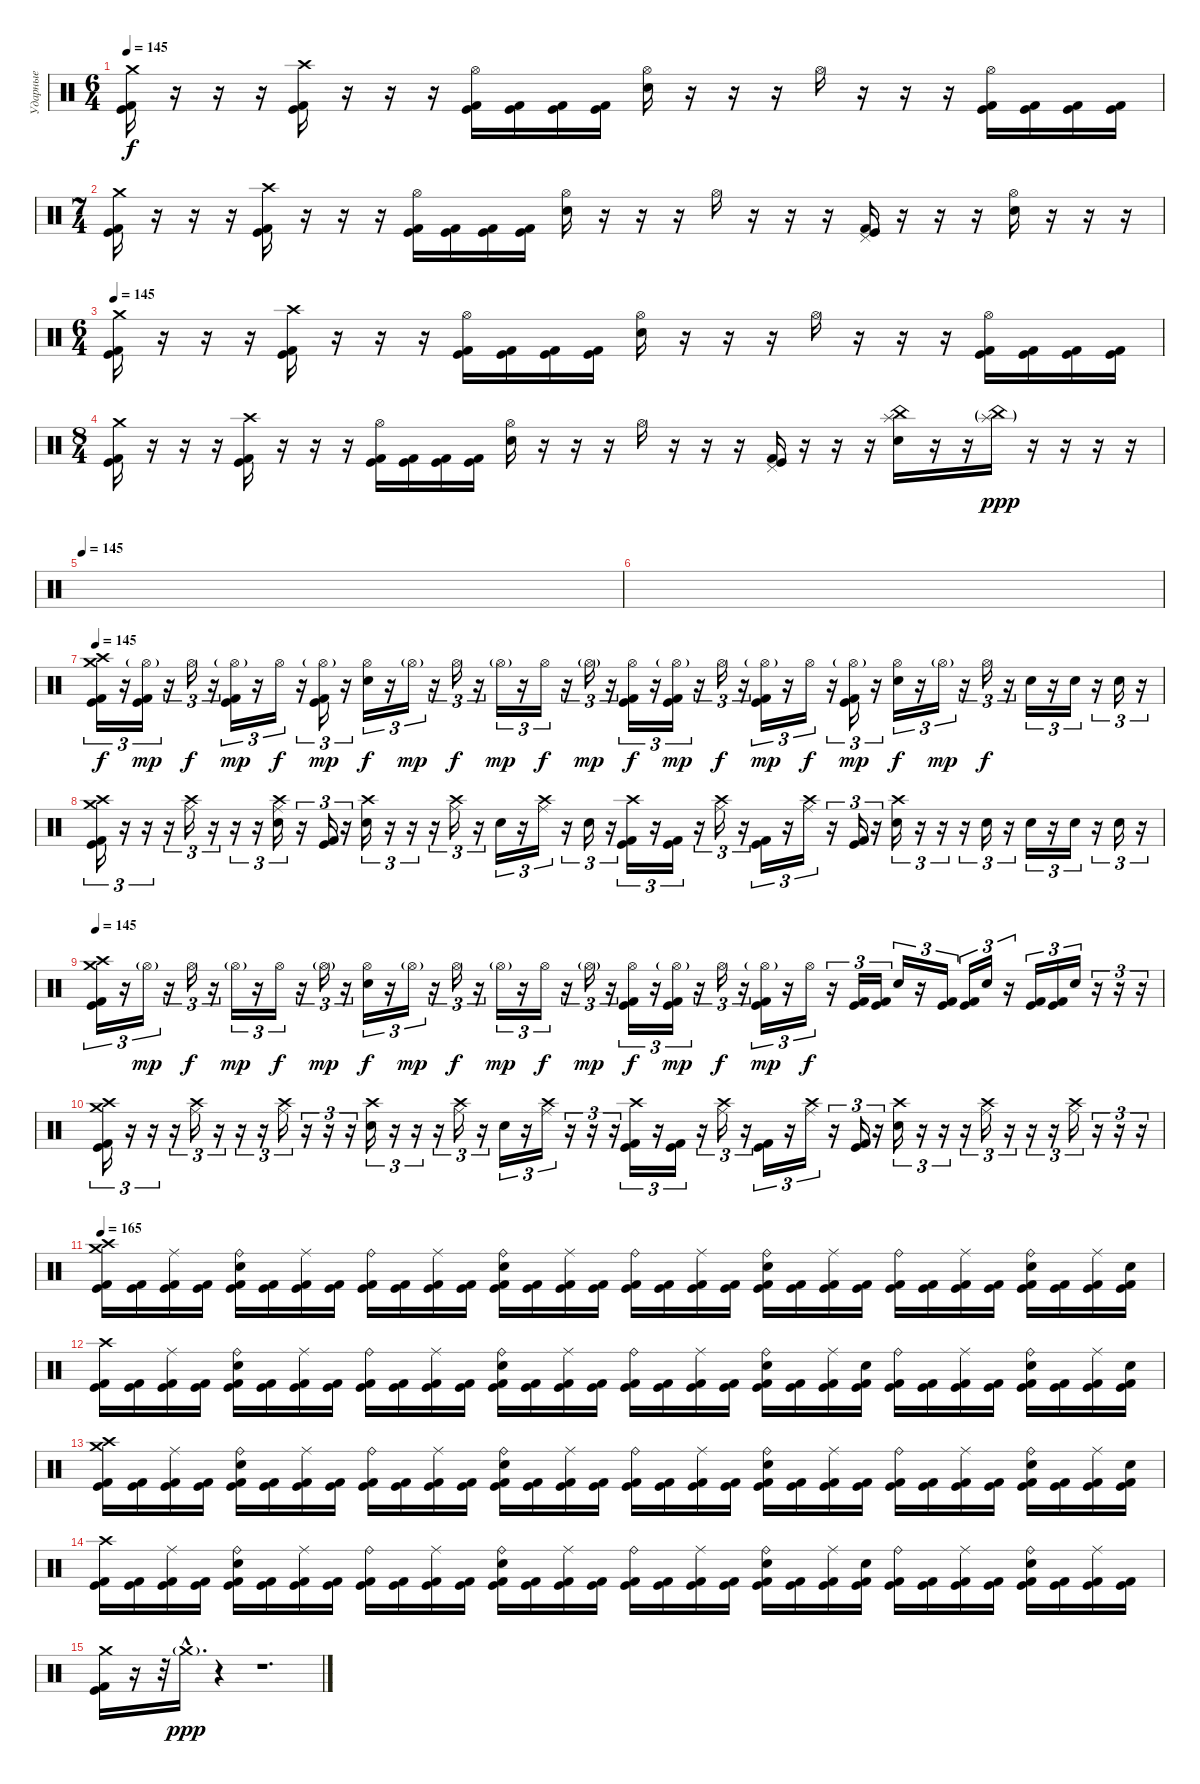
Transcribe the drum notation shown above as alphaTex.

\track ("Ударные" "Ударные") {instrument percussion}
\staff {score}
\articulation defaults
\ts (6 4)
\section ("" "")
\tempo 165
\tempo 145
\clef neutral
\ks c
("Crash medium (hit)" "Kick (hit)" "Kick (hit) 2").16{dy f} r.16 r.16 r.16 ("Crash high (hit)" "Kick (hit)" "Kick (hit) 2").16 r.16 r.16 r.16 ("Hi-Hat (open)" "Kick (hit)" "Kick (hit) 2").16 ("Kick (hit)" "Kick (hit) 2").16 ("Kick (hit)" "Kick (hit) 2").16 ("Kick (hit)" "Kick (hit) 2").16 ("Hi-Hat (open)" "Electric Snare (hit)").16 r.16 r.16 r.16 "Hi-Hat (open)".16 r.16 r.16 r.16 ("Hi-Hat (open)" "Kick (hit)" "Kick (hit) 2").16 ("Kick (hit)" "Kick (hit) 2").16 ("Kick (hit)" "Kick (hit) 2").16 ("Kick (hit)" "Kick (hit) 2").16 |
\ts (7 4)
("Crash medium (hit)" "Kick (hit)" "Kick (hit) 2").16 r.16 r.16 r.16 ("Crash high (hit)" "Kick (hit)" "Kick (hit) 2").16 r.16 r.16 r.16 ("Hi-Hat (open)" "Kick (hit)" "Kick (hit) 2").16 ("Kick (hit)" "Kick (hit) 2").16 ("Kick (hit)" "Kick (hit) 2").16 ("Kick (hit)" "Kick (hit) 2").16 ("Hi-Hat (open)" "Electric Snare (hit)").16 r.16 r.16 r.16 "Hi-Hat (open)".16 r.16 r.16 r.16 ("Pedal Hi-Hat (hit)" "Kick (hit)" "Kick (hit) 2").16 r.16 r.16 r.16 ("Hi-Hat (open)" "Electric Snare (hit)").16 r.16 r.16 r.16 |
\ts (6 4)
\tempo 145
("Crash medium (hit)" "Kick (hit)" "Kick (hit) 2").16 r.16 r.16 r.16 ("Crash high (hit)" "Kick (hit)" "Kick (hit) 2").16 r.16 r.16 r.16 ("Hi-Hat (open)" "Kick (hit)" "Kick (hit) 2").16 ("Kick (hit)" "Kick (hit) 2").16 ("Kick (hit)" "Kick (hit) 2").16 ("Kick (hit)" "Kick (hit) 2").16 ("Hi-Hat (open)" "Electric Snare (hit)").16 r.16 r.16 r.16 "Hi-Hat (open)".16 r.16 r.16 r.16 ("Hi-Hat (open)" "Kick (hit)" "Kick (hit) 2").16 ("Kick (hit)" "Kick (hit) 2").16 ("Kick (hit)" "Kick (hit) 2").16 ("Kick (hit)" "Kick (hit) 2").16 |
\ts (8 4)
("Crash medium (hit)" "Kick (hit)" "Kick (hit) 2").16 r.16 r.16 r.16 ("Crash high (hit)" "Kick (hit)" "Kick (hit) 2").16 r.16 r.16 r.16 ("Hi-Hat (open)" "Kick (hit)" "Kick (hit) 2").16 ("Kick (hit)" "Kick (hit) 2").16 ("Kick (hit)" "Kick (hit) 2").16 ("Kick (hit)" "Kick (hit) 2").16 ("Hi-Hat (open)" "Electric Snare (hit)").16 r.16 r.16 r.16 "Hi-Hat (open)".16 r.16 r.16 r.16 ("Pedal Hi-Hat (hit)" "Kick (hit)" "Kick (hit) 2").16 r.16 r.16 r.16 ("Splash (hit)" "China (hit)" "Electric Snare (hit)").16 r.16 r.16 ("Splash (hit)"{g} "China (hit)"{g}).16{dy ppp} r.16 r.16 r.16 r.16 |
\tempo 145
|
|
\section ("" "")
\tempo 145
("Crash medium (hit)" "Crash high (hit)" "Kick (hit)" "Kick (hit) 2").16{tu (3 2) dy f} r.16{tu (3 2)} ("Hi-Hat (open)"{g} "Kick (hit)" "Kick (hit) 2").16{tu (3 2) dy mp} r.16{tu (3 2)} "Hi-Hat (open)".16{tu (3 2) dy f} r.16{tu (3 2)} ("Hi-Hat (open)"{g} "Kick (hit)" "Kick (hit) 2").16{tu (3 2) dy mp} r.16{tu (3 2)} "Hi-Hat (open)".16{tu (3 2) dy f} r.16{tu (3 2)} ("Hi-Hat (open)"{g} "Kick (hit)" "Kick (hit) 2").16{tu (3 2) dy mp} r.16{tu (3 2)} ("Hi-Hat (open)" "Electric Snare (hit)").16{tu (3 2) dy f} r.16{tu (3 2)} "Hi-Hat (open)"{g}.16{tu (3 2) dy mp} r.16{tu (3 2)} "Hi-Hat (open)".16{tu (3 2) dy f} r.16{tu (3 2)} "Hi-Hat (open)"{g}.16{tu (3 2) dy mp} r.16{tu (3 2)} "Hi-Hat (open)".16{tu (3 2) dy f} r.16{tu (3 2)} "Hi-Hat (open)"{g}.16{tu (3 2) dy mp} r.16{tu (3 2)} ("Hi-Hat (open)" "Kick (hit)" "Kick (hit) 2").16{tu (3 2) dy f} r.16{tu (3 2)} ("Hi-Hat (open)"{g} "Kick (hit)" "Kick (hit) 2").16{tu (3 2) dy mp} r.16{tu (3 2)} "Hi-Hat (open)".16{tu (3 2) dy f} r.16{tu (3 2)} ("Hi-Hat (open)"{g} "Kick (hit)" "Kick (hit) 2").16{tu (3 2) dy mp} r.16{tu (3 2)} "Hi-Hat (open)".16{tu (3 2) dy f} r.16{tu (3 2)} ("Hi-Hat (open)"{g} "Kick (hit)" "Kick (hit) 2").16{tu (3 2) dy mp} r.16{tu (3 2)} ("Hi-Hat (open)" "Electric Snare (hit)").16{tu (3 2) dy f} r.16{tu (3 2)} "Hi-Hat (open)"{g}.16{tu (3 2) dy mp} r.16{tu (3 2)} "Hi-Hat (open)".16{tu (3 2) dy f} r.16{tu (3 2)} "Electric Snare (hit)".16{tu (3 2)} r.16{tu (3 2)} "Electric Snare (hit)".16{tu (3 2)} r.16{tu (3 2)} "Electric Snare (hit)".16{tu (3 2)} r.16{tu (3 2)} |
("Crash medium (hit)" "Crash high (hit)" "Kick (hit)" "Kick (hit) 2").16{tu (3 2)} r.16{tu (3 2)} r.16{tu (3 2)} r.16{tu (3 2)} ("Ride (middle)" "Crash high (hit)").16{tu (3 2)} r.16{tu (3 2)} r.16{tu (3 2)} r.16{tu (3 2)} ("Ride (middle)" "Crash high (hit)" "Electric Snare (hit)").16{tu (3 2)} r.16{tu (3 2)} ("Kick (hit)" "Kick (hit) 2").16{tu (3 2)} r.16{tu (3 2)} ("Crash high (hit)" "Electric Snare (hit)").16{tu (3 2)} r.16{tu (3 2)} r.16{tu (3 2)} r.16{tu (3 2)} ("Ride (middle)" "Crash high (hit)").16{tu (3 2)} r.16{tu (3 2)} "Electric Snare (hit)".16{tu (3 2)} r.16{tu (3 2)} ("Ride (middle)" "Crash high (hit)").16{tu (3 2)} r.16{tu (3 2)} "Electric Snare (hit)".16{tu (3 2)} r.16{tu (3 2)} ("Crash high (hit)" "Kick (hit)" "Kick (hit) 2").16{tu (3 2)} r.16{tu (3 2)} ("Kick (hit)" "Kick (hit) 2").16{tu (3 2)} r.16{tu (3 2)} ("Ride (middle)" "Crash high (hit)").16{tu (3 2)} r.16{tu (3 2)} ("Kick (hit)" "Kick (hit) 2").16{tu (3 2)} r.16{tu (3 2)} ("Ride (middle)" "Crash high (hit)").16{tu (3 2)} r.16{tu (3 2)} ("Kick (hit)" "Kick (hit) 2").16{tu (3 2)} r.16{tu (3 2)} ("Crash high (hit)" "Electric Snare (hit)").16{tu (3 2)} r.16{tu (3 2)} r.16{tu (3 2)} r.16{tu (3 2)} "Electric Snare (hit)".16{tu (3 2)} r.16{tu (3 2)} "Electric Snare (hit)".16{tu (3 2)} r.16{tu (3 2)} "Electric Snare (hit)".16{tu (3 2)} r.16{tu (3 2)} "Electric Snare (hit)".16{tu (3 2)} r.16{tu (3 2)} |
\tempo 145
("Crash medium (hit)" "Crash high (hit)" "Kick (hit)" "Kick (hit) 2").16{tu (3 2)} r.16{tu (3 2)} "Hi-Hat (open)"{g}.16{tu (3 2) dy mp} r.16{tu (3 2)} "Hi-Hat (open)".16{tu (3 2) dy f} r.16{tu (3 2)} "Hi-Hat (open)"{g}.16{tu (3 2) dy mp} r.16{tu (3 2)} "Hi-Hat (open)".16{tu (3 2) dy f} r.16{tu (3 2)} "Hi-Hat (open)"{g}.16{tu (3 2) dy mp} r.16{tu (3 2)} ("Hi-Hat (open)" "Electric Snare (hit)").16{tu (3 2) dy f} r.16{tu (3 2)} "Hi-Hat (open)"{g}.16{tu (3 2) dy mp} r.16{tu (3 2)} "Hi-Hat (open)".16{tu (3 2) dy f} r.16{tu (3 2)} "Hi-Hat (open)"{g}.16{tu (3 2) dy mp} r.16{tu (3 2)} "Hi-Hat (open)".16{tu (3 2) dy f} r.16{tu (3 2)} "Hi-Hat (open)"{g}.16{tu (3 2) dy mp} r.16{tu (3 2)} ("Hi-Hat (open)" "Kick (hit)" "Kick (hit) 2").16{tu (3 2) dy f} r.16{tu (3 2)} ("Hi-Hat (open)"{g} "Kick (hit)" "Kick (hit) 2").16{tu (3 2) dy mp} r.16{tu (3 2)} "Hi-Hat (open)".16{tu (3 2) dy f} r.16{tu (3 2)} ("Hi-Hat (open)"{g} "Kick (hit)" "Kick (hit) 2").16{tu (3 2) dy mp} r.16{tu (3 2)} "Hi-Hat (open)".16{tu (3 2) dy f} r.16{tu (3 2)} ("Kick (hit)" "Kick (hit) 2").16{tu (3 2)} ("Kick (hit)" "Kick (hit) 2").16{tu (3 2)} "Electric Snare (hit)".16{tu (3 2)} r.16{tu (3 2)} ("Kick (hit)" "Kick (hit) 2").16{tu (3 2)} ("Kick (hit)" "Kick (hit) 2").16{tu (3 2)} "Electric Snare (hit)".16{tu (3 2)} r.16{tu (3 2)} ("Kick (hit)" "Kick (hit) 2").16{tu (3 2)} ("Kick (hit)" "Kick (hit) 2").16{tu (3 2)} "Electric Snare (hit)".16{tu (3 2)} r.16{tu (3 2)} r.16{tu (3 2)} r.16{tu (3 2)} |
("Crash medium (hit)" "Crash high (hit)" "Kick (hit)" "Kick (hit) 2").16{tu (3 2)} r.16{tu (3 2)} r.16{tu (3 2)} r.16{tu (3 2)} ("Ride (middle)" "Crash high (hit)").16{tu (3 2)} r.16{tu (3 2)} r.16{tu (3 2)} r.16{tu (3 2)} ("Ride (middle)" "Crash high (hit)").16{tu (3 2)} r.16{tu (3 2)} r.16{tu (3 2)} r.16{tu (3 2)} ("Crash high (hit)" "Electric Snare (hit)").16{tu (3 2)} r.16{tu (3 2)} r.16{tu (3 2)} r.16{tu (3 2)} ("Ride (middle)" "Crash high (hit)").16{tu (3 2)} r.16{tu (3 2)} "Electric Snare (hit)".16{tu (3 2)} r.16{tu (3 2)} ("Ride (middle)" "Crash high (hit)").16{tu (3 2)} r.16{tu (3 2)} r.16{tu (3 2)} r.16{tu (3 2)} ("Crash high (hit)" "Kick (hit)" "Kick (hit) 2").16{tu (3 2)} r.16{tu (3 2)} ("Kick (hit)" "Kick (hit) 2").16{tu (3 2)} r.16{tu (3 2)} ("Ride (middle)" "Crash high (hit)").16{tu (3 2)} r.16{tu (3 2)} ("Kick (hit)" "Kick (hit) 2").16{tu (3 2)} r.16{tu (3 2)} ("Ride (middle)" "Crash high (hit)").16{tu (3 2)} r.16{tu (3 2)} ("Kick (hit)" "Kick (hit) 2").16{tu (3 2)} r.16{tu (3 2)} ("Crash high (hit)" "Electric Snare (hit)").16{tu (3 2)} r.16{tu (3 2)} r.16{tu (3 2)} r.16{tu (3 2)} ("Ride (middle)" "Crash high (hit)").16{tu (3 2)} r.16{tu (3 2)} r.16{tu (3 2)} r.16{tu (3 2)} ("Ride (middle)" "Crash high (hit)").16{tu (3 2)} r.16{tu (3 2)} r.16{tu (3 2)} r.16{tu (3 2)} |
\tempo 165
("Crash medium (hit)" "Crash high (hit)" "Kick (hit)" "Kick (hit) 2").16 ("Kick (hit)" "Kick (hit) 2").16 ("Ride (middle)" "Kick (hit)" "Kick (hit) 2").16 ("Kick (hit)" "Kick (hit) 2").16 ("Ride (bell)" "Electric Snare (hit)" "Kick (hit)" "Kick (hit) 2").16 ("Kick (hit)" "Kick (hit) 2").16 ("Ride (middle)" "Kick (hit)" "Kick (hit) 2").16 ("Kick (hit)" "Kick (hit) 2").16 ("Ride (bell)" "Kick (hit)" "Kick (hit) 2").16 ("Kick (hit)" "Kick (hit) 2").16 ("Ride (middle)" "Kick (hit)" "Kick (hit) 2").16 ("Kick (hit)" "Kick (hit) 2").16 ("Ride (bell)" "Electric Snare (hit)" "Kick (hit)" "Kick (hit) 2").16 ("Kick (hit)" "Kick (hit) 2").16 ("Ride (middle)" "Kick (hit)" "Kick (hit) 2").16 ("Kick (hit)" "Kick (hit) 2").16 ("Ride (bell)" "Kick (hit)" "Kick (hit) 2").16 ("Kick (hit)" "Kick (hit) 2").16 ("Ride (middle)" "Kick (hit)" "Kick (hit) 2").16 ("Kick (hit)" "Kick (hit) 2").16 ("Ride (bell)" "Electric Snare (hit)" "Kick (hit)" "Kick (hit) 2").16 ("Kick (hit)" "Kick (hit) 2").16 ("Ride (middle)" "Kick (hit)" "Kick (hit) 2").16 ("Kick (hit)" "Kick (hit) 2").16 ("Ride (bell)" "Kick (hit)" "Kick (hit) 2").16 ("Kick (hit)" "Kick (hit) 2").16 ("Ride (middle)" "Kick (hit)" "Kick (hit) 2").16 ("Kick (hit)" "Kick (hit) 2").16 ("Ride (bell)" "Electric Snare (hit)" "Kick (hit)" "Kick (hit) 2").16 ("Kick (hit)" "Kick (hit) 2").16 ("Ride (middle)" "Kick (hit)" "Kick (hit) 2").16 ("Electric Snare (hit)" "Kick (hit)" "Kick (hit) 2").16 |
("Crash high (hit)" "Kick (hit)" "Kick (hit) 2").16 ("Kick (hit)" "Kick (hit) 2").16 ("Ride (middle)" "Kick (hit)" "Kick (hit) 2").16 ("Kick (hit)" "Kick (hit) 2").16 ("Ride (bell)" "Electric Snare (hit)" "Kick (hit)" "Kick (hit) 2").16 ("Kick (hit)" "Kick (hit) 2").16 ("Ride (middle)" "Kick (hit)" "Kick (hit) 2").16 ("Kick (hit)" "Kick (hit) 2").16 ("Ride (bell)" "Kick (hit)" "Kick (hit) 2").16 ("Kick (hit)" "Kick (hit) 2").16 ("Ride (middle)" "Kick (hit)" "Kick (hit) 2").16 ("Kick (hit)" "Kick (hit) 2").16 ("Ride (bell)" "Electric Snare (hit)" "Kick (hit)" "Kick (hit) 2").16 ("Kick (hit)" "Kick (hit) 2").16 ("Ride (middle)" "Kick (hit)" "Kick (hit) 2").16 ("Kick (hit)" "Kick (hit) 2").16 ("Ride (bell)" "Kick (hit)" "Kick (hit) 2").16 ("Kick (hit)" "Kick (hit) 2").16 ("Ride (middle)" "Kick (hit)" "Kick (hit) 2").16 ("Kick (hit)" "Kick (hit) 2").16 ("Ride (bell)" "Electric Snare (hit)" "Kick (hit)" "Kick (hit) 2").16 ("Kick (hit)" "Kick (hit) 2").16 ("Ride (middle)" "Kick (hit)" "Kick (hit) 2").16 ("Electric Snare (hit)" "Kick (hit)" "Kick (hit) 2").16 ("Ride (bell)" "Kick (hit)" "Kick (hit) 2").16 ("Kick (hit)" "Kick (hit) 2").16 ("Ride (middle)" "Kick (hit)" "Kick (hit) 2").16 ("Kick (hit)" "Kick (hit) 2").16 ("Ride (bell)" "Electric Snare (hit)" "Kick (hit)" "Kick (hit) 2").16 ("Kick (hit)" "Kick (hit) 2").16 ("Ride (middle)" "Kick (hit)" "Kick (hit) 2").16 ("Electric Snare (hit)" "Kick (hit)" "Kick (hit) 2").16 |
("Crash medium (hit)" "Crash high (hit)" "Kick (hit)" "Kick (hit) 2").16 ("Kick (hit)" "Kick (hit) 2").16 ("Ride (middle)" "Kick (hit)" "Kick (hit) 2").16 ("Kick (hit)" "Kick (hit) 2").16 ("Ride (bell)" "Electric Snare (hit)" "Kick (hit)" "Kick (hit) 2").16 ("Kick (hit)" "Kick (hit) 2").16 ("Ride (middle)" "Kick (hit)" "Kick (hit) 2").16 ("Kick (hit)" "Kick (hit) 2").16 ("Ride (bell)" "Kick (hit)" "Kick (hit) 2").16 ("Kick (hit)" "Kick (hit) 2").16 ("Ride (middle)" "Kick (hit)" "Kick (hit) 2").16 ("Kick (hit)" "Kick (hit) 2").16 ("Ride (bell)" "Electric Snare (hit)" "Kick (hit)" "Kick (hit) 2").16 ("Kick (hit)" "Kick (hit) 2").16 ("Ride (middle)" "Kick (hit)" "Kick (hit) 2").16 ("Kick (hit)" "Kick (hit) 2").16 ("Ride (bell)" "Kick (hit)" "Kick (hit) 2").16 ("Kick (hit)" "Kick (hit) 2").16 ("Ride (middle)" "Kick (hit)" "Kick (hit) 2").16 ("Kick (hit)" "Kick (hit) 2").16 ("Ride (bell)" "Electric Snare (hit)" "Kick (hit)" "Kick (hit) 2").16 ("Kick (hit)" "Kick (hit) 2").16 ("Ride (middle)" "Kick (hit)" "Kick (hit) 2").16 ("Kick (hit)" "Kick (hit) 2").16 ("Ride (bell)" "Kick (hit)" "Kick (hit) 2").16 ("Kick (hit)" "Kick (hit) 2").16 ("Ride (middle)" "Kick (hit)" "Kick (hit) 2").16 ("Kick (hit)" "Kick (hit) 2").16 ("Ride (bell)" "Electric Snare (hit)" "Kick (hit)" "Kick (hit) 2").16 ("Kick (hit)" "Kick (hit) 2").16 ("Ride (middle)" "Kick (hit)" "Kick (hit) 2").16 ("Electric Snare (hit)" "Kick (hit)" "Kick (hit) 2").16 |
("Crash high (hit)" "Kick (hit)" "Kick (hit) 2").16 ("Kick (hit)" "Kick (hit) 2").16 ("Ride (middle)" "Kick (hit)" "Kick (hit) 2").16 ("Kick (hit)" "Kick (hit) 2").16 ("Ride (bell)" "Electric Snare (hit)" "Kick (hit)" "Kick (hit) 2").16 ("Kick (hit)" "Kick (hit) 2").16 ("Ride (middle)" "Kick (hit)" "Kick (hit) 2").16 ("Kick (hit)" "Kick (hit) 2").16 ("Ride (bell)" "Kick (hit)" "Kick (hit) 2").16 ("Kick (hit)" "Kick (hit) 2").16 ("Ride (middle)" "Kick (hit)" "Kick (hit) 2").16 ("Kick (hit)" "Kick (hit) 2").16 ("Ride (bell)" "Electric Snare (hit)" "Kick (hit)" "Kick (hit) 2").16 ("Kick (hit)" "Kick (hit) 2").16 ("Ride (middle)" "Kick (hit)" "Kick (hit) 2").16 ("Kick (hit)" "Kick (hit) 2").16 ("Ride (bell)" "Kick (hit)" "Kick (hit) 2").16 ("Kick (hit)" "Kick (hit) 2").16 ("Ride (middle)" "Kick (hit)" "Kick (hit) 2").16 ("Kick (hit)" "Kick (hit) 2").16 ("Ride (bell)" "Electric Snare (hit)" "Kick (hit)" "Kick (hit) 2").16 ("Kick (hit)" "Kick (hit) 2").16 ("Ride (middle)" "Kick (hit)" "Kick (hit) 2").16 ("Electric Snare (hit)" "Kick (hit)" "Kick (hit) 2").16 ("Ride (bell)" "Kick (hit)" "Kick (hit) 2").16 ("Kick (hit)" "Kick (hit) 2").16 ("Ride (middle)" "Kick (hit)" "Kick (hit) 2").16 ("Kick (hit)" "Kick (hit) 2").16 ("Ride (bell)" "Electric Snare (hit)" "Kick (hit)" "Kick (hit) 2").16 ("Kick (hit)" "Kick (hit) 2").16 ("Ride (middle)" "Kick (hit)" "Kick (hit) 2").16 ("Kick (hit)" "Kick (hit) 2").16 |
("Crash medium (hit)" "Kick (hit)" "Kick (hit) 2").16 r.16 r.32 "Crash medium (hit)"{g hac}.16{d dy ppp} r.4 r.1{d}
